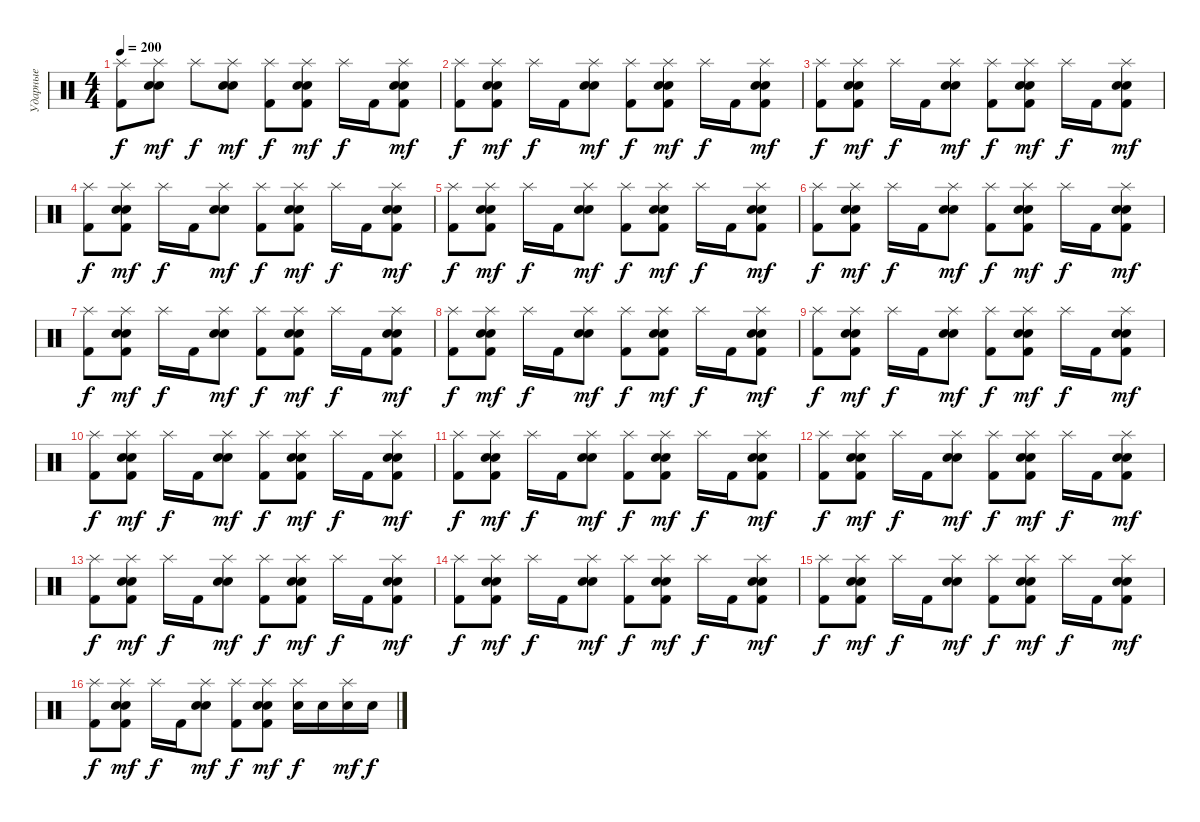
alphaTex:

\track ("Ударные" "Ударные") {instrument percussion}
\staff {score}
\articulation defaults
\ts (4 4)
\tempo 200
\clef neutral
\ks c
("Splash (hit)" "Kick (hit) 2").8{dy f} ("Splash (hit)" "Electric Snare (hit)" "Snare (hit) 2").8{dy mf} "Splash (hit)".8{dy f} ("Splash (hit)" "Electric Snare (hit)" "Snare (hit) 2").8{dy mf} ("Splash (hit)" "Kick (hit) 2").8{dy f} ("Splash (hit)" "Electric Snare (hit)" "Snare (hit) 2" "Kick (hit) 2").8{dy mf} "Splash (hit)".16{dy f} "Kick (hit) 2".16 ("Splash (hit)" "Electric Snare (hit)" "Snare (hit) 2" "Kick (hit) 2").8{dy mf} |
("Splash (hit)" "Kick (hit) 2").8{dy f} ("Splash (hit)" "Electric Snare (hit)" "Snare (hit) 2" "Kick (hit) 2").8{dy mf} "Splash (hit)".16{dy f} "Kick (hit) 2".16 ("Splash (hit)" "Electric Snare (hit)" "Snare (hit) 2").8{dy mf} ("Splash (hit)" "Kick (hit) 2").8{dy f} ("Splash (hit)" "Electric Snare (hit)" "Snare (hit) 2" "Kick (hit) 2").8{dy mf} "Splash (hit)".16{dy f} "Kick (hit) 2".16 ("Splash (hit)" "Electric Snare (hit)" "Snare (hit) 2" "Kick (hit) 2").8{dy mf} |
("Splash (hit)" "Kick (hit) 2").8{dy f} ("Splash (hit)" "Electric Snare (hit)" "Snare (hit) 2" "Kick (hit) 2").8{dy mf} "Splash (hit)".16{dy f} "Kick (hit) 2".16 ("Splash (hit)" "Electric Snare (hit)" "Snare (hit) 2").8{dy mf} ("Splash (hit)" "Kick (hit) 2").8{dy f} ("Splash (hit)" "Electric Snare (hit)" "Snare (hit) 2" "Kick (hit) 2").8{dy mf} "Splash (hit)".16{dy f} "Kick (hit) 2".16 ("Splash (hit)" "Electric Snare (hit)" "Snare (hit) 2" "Kick (hit) 2").8{dy mf} |
("Splash (hit)" "Kick (hit) 2").8{dy f} ("Splash (hit)" "Electric Snare (hit)" "Snare (hit) 2" "Kick (hit) 2").8{dy mf} "Splash (hit)".16{dy f} "Kick (hit) 2".16 ("Splash (hit)" "Electric Snare (hit)" "Snare (hit) 2").8{dy mf} ("Splash (hit)" "Kick (hit) 2").8{dy f} ("Splash (hit)" "Electric Snare (hit)" "Snare (hit) 2" "Kick (hit) 2").8{dy mf} "Splash (hit)".16{dy f} "Kick (hit) 2".16 ("Splash (hit)" "Electric Snare (hit)" "Snare (hit) 2" "Kick (hit) 2").8{dy mf} |
("Splash (hit)" "Kick (hit) 2").8{dy f} ("Splash (hit)" "Electric Snare (hit)" "Snare (hit) 2" "Kick (hit) 2").8{dy mf} "Splash (hit)".16{dy f} "Kick (hit) 2".16 ("Splash (hit)" "Electric Snare (hit)" "Snare (hit) 2").8{dy mf} ("Splash (hit)" "Kick (hit) 2").8{dy f} ("Splash (hit)" "Electric Snare (hit)" "Snare (hit) 2" "Kick (hit) 2").8{dy mf} "Splash (hit)".16{dy f} "Kick (hit) 2".16 ("Splash (hit)" "Electric Snare (hit)" "Snare (hit) 2" "Kick (hit) 2").8{dy mf} |
("Splash (hit)" "Kick (hit) 2").8{dy f} ("Splash (hit)" "Electric Snare (hit)" "Snare (hit) 2" "Kick (hit) 2").8{dy mf} "Splash (hit)".16{dy f} "Kick (hit) 2".16 ("Splash (hit)" "Electric Snare (hit)" "Snare (hit) 2").8{dy mf} ("Splash (hit)" "Kick (hit) 2").8{dy f} ("Splash (hit)" "Electric Snare (hit)" "Snare (hit) 2" "Kick (hit) 2").8{dy mf} "Splash (hit)".16{dy f} "Kick (hit) 2".16 ("Splash (hit)" "Electric Snare (hit)" "Snare (hit) 2" "Kick (hit) 2").8{dy mf} |
("Splash (hit)" "Kick (hit) 2").8{dy f} ("Splash (hit)" "Electric Snare (hit)" "Snare (hit) 2" "Kick (hit) 2").8{dy mf} "Splash (hit)".16{dy f} "Kick (hit) 2".16 ("Splash (hit)" "Electric Snare (hit)" "Snare (hit) 2").8{dy mf} ("Splash (hit)" "Kick (hit) 2").8{dy f} ("Splash (hit)" "Electric Snare (hit)" "Snare (hit) 2" "Kick (hit) 2").8{dy mf} "Splash (hit)".16{dy f} "Kick (hit) 2".16 ("Splash (hit)" "Electric Snare (hit)" "Snare (hit) 2" "Kick (hit) 2").8{dy mf} |
("Splash (hit)" "Kick (hit) 2").8{dy f} ("Splash (hit)" "Electric Snare (hit)" "Snare (hit) 2" "Kick (hit) 2").8{dy mf} "Splash (hit)".16{dy f} "Kick (hit) 2".16 ("Splash (hit)" "Electric Snare (hit)" "Snare (hit) 2").8{dy mf} ("Splash (hit)" "Kick (hit) 2").8{dy f} ("Splash (hit)" "Electric Snare (hit)" "Snare (hit) 2" "Kick (hit) 2").8{dy mf} "Splash (hit)".16{dy f} "Kick (hit) 2".16 ("Splash (hit)" "Electric Snare (hit)" "Snare (hit) 2" "Kick (hit) 2").8{dy mf} |
("Splash (hit)" "Kick (hit) 2").8{dy f} ("Splash (hit)" "Electric Snare (hit)" "Snare (hit) 2" "Kick (hit) 2").8{dy mf} "Splash (hit)".16{dy f} "Kick (hit) 2".16 ("Splash (hit)" "Electric Snare (hit)" "Snare (hit) 2").8{dy mf} ("Splash (hit)" "Kick (hit) 2").8{dy f} ("Splash (hit)" "Electric Snare (hit)" "Snare (hit) 2" "Kick (hit) 2").8{dy mf} "Splash (hit)".16{dy f} "Kick (hit) 2".16 ("Splash (hit)" "Electric Snare (hit)" "Snare (hit) 2" "Kick (hit) 2").8{dy mf} |
("Splash (hit)" "Kick (hit) 2").8{dy f} ("Splash (hit)" "Electric Snare (hit)" "Snare (hit) 2" "Kick (hit) 2").8{dy mf} "Splash (hit)".16{dy f} "Kick (hit) 2".16 ("Splash (hit)" "Electric Snare (hit)" "Snare (hit) 2").8{dy mf} ("Splash (hit)" "Kick (hit) 2").8{dy f} ("Splash (hit)" "Electric Snare (hit)" "Snare (hit) 2" "Kick (hit) 2").8{dy mf} "Splash (hit)".16{dy f} "Kick (hit) 2".16 ("Splash (hit)" "Electric Snare (hit)" "Snare (hit) 2" "Kick (hit) 2").8{dy mf} |
("Splash (hit)" "Kick (hit) 2").8{dy f} ("Splash (hit)" "Electric Snare (hit)" "Snare (hit) 2" "Kick (hit) 2").8{dy mf} "Splash (hit)".16{dy f} "Kick (hit) 2".16 ("Splash (hit)" "Electric Snare (hit)" "Snare (hit) 2").8{dy mf} ("Splash (hit)" "Kick (hit) 2").8{dy f} ("Splash (hit)" "Electric Snare (hit)" "Snare (hit) 2" "Kick (hit) 2").8{dy mf} "Splash (hit)".16{dy f} "Kick (hit) 2".16 ("Splash (hit)" "Electric Snare (hit)" "Snare (hit) 2" "Kick (hit) 2").8{dy mf} |
("Splash (hit)" "Kick (hit) 2").8{dy f} ("Splash (hit)" "Electric Snare (hit)" "Snare (hit) 2" "Kick (hit) 2").8{dy mf} "Splash (hit)".16{dy f} "Kick (hit) 2".16 ("Splash (hit)" "Electric Snare (hit)" "Snare (hit) 2").8{dy mf} ("Splash (hit)" "Kick (hit) 2").8{dy f} ("Splash (hit)" "Electric Snare (hit)" "Snare (hit) 2" "Kick (hit) 2").8{dy mf} "Splash (hit)".16{dy f} "Kick (hit) 2".16 ("Splash (hit)" "Electric Snare (hit)" "Snare (hit) 2" "Kick (hit) 2").8{dy mf} |
("Splash (hit)" "Kick (hit) 2").8{dy f} ("Splash (hit)" "Electric Snare (hit)" "Snare (hit) 2" "Kick (hit) 2").8{dy mf} "Splash (hit)".16{dy f} "Kick (hit) 2".16 ("Splash (hit)" "Electric Snare (hit)" "Snare (hit) 2").8{dy mf} ("Splash (hit)" "Kick (hit) 2").8{dy f} ("Splash (hit)" "Electric Snare (hit)" "Snare (hit) 2" "Kick (hit) 2").8{dy mf} "Splash (hit)".16{dy f} "Kick (hit) 2".16 ("Splash (hit)" "Electric Snare (hit)" "Snare (hit) 2" "Kick (hit) 2").8{dy mf} |
("Splash (hit)" "Kick (hit) 2").8{dy f} ("Splash (hit)" "Electric Snare (hit)" "Snare (hit) 2" "Kick (hit) 2").8{dy mf} "Splash (hit)".16{dy f} "Kick (hit) 2".16 ("Splash (hit)" "Electric Snare (hit)" "Snare (hit) 2").8{dy mf} ("Splash (hit)" "Kick (hit) 2").8{dy f} ("Splash (hit)" "Electric Snare (hit)" "Snare (hit) 2" "Kick (hit) 2").8{dy mf} "Splash (hit)".16{dy f} "Kick (hit) 2".16 ("Splash (hit)" "Electric Snare (hit)" "Snare (hit) 2" "Kick (hit) 2").8{dy mf} |
("Splash (hit)" "Kick (hit) 2").8{dy f} ("Splash (hit)" "Electric Snare (hit)" "Snare (hit) 2" "Kick (hit) 2").8{dy mf} "Splash (hit)".16{dy f} "Kick (hit) 2".16 ("Splash (hit)" "Electric Snare (hit)" "Snare (hit) 2").8{dy mf} ("Splash (hit)" "Kick (hit) 2").8{dy f} ("Splash (hit)" "Electric Snare (hit)" "Snare (hit) 2" "Kick (hit) 2").8{dy mf} "Splash (hit)".16{dy f} "Kick (hit) 2".16 ("Splash (hit)" "Electric Snare (hit)" "Snare (hit) 2" "Kick (hit) 2").8{dy mf} |
("Splash (hit)" "Kick (hit) 2").8{dy f} ("Splash (hit)" "Electric Snare (hit)" "Snare (hit) 2" "Kick (hit) 2").8{dy mf} "Splash (hit)".16{dy f} "Kick (hit) 2".16 ("Splash (hit)" "Electric Snare (hit)" "Snare (hit) 2").8{dy mf} ("Splash (hit)" "Kick (hit) 2").8{dy f} ("Splash (hit)" "Electric Snare (hit)" "Snare (hit) 2" "Kick (hit) 2").8{dy mf} ("Splash (hit)" "Electric Snare (hit)").16{dy f} "Electric Snare (hit)".16 ("Splash (hit)" "Electric Snare (hit)").16{dy mf} "Electric Snare (hit)".16{dy f}
